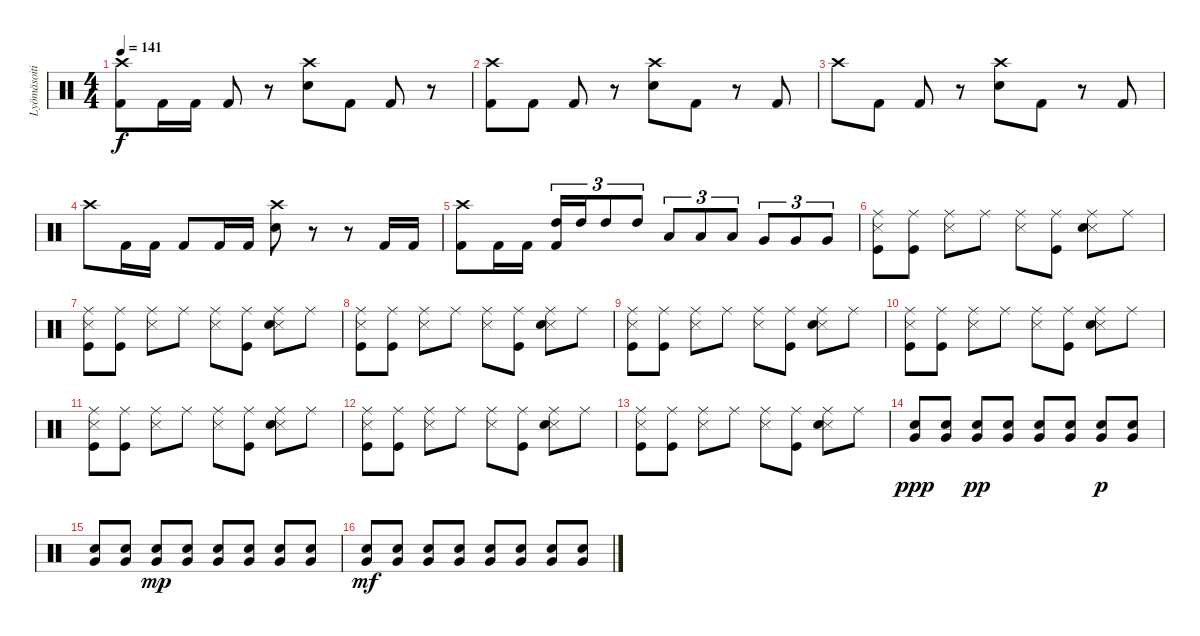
\track ("Lyömäsoitin" "Lyömäsoiti") {instrument percussion}
\staff {score}
\articulation defaults
\ts (4 4)
\tempo 141
\clef neutral
\ks c
("Crash high (hit)" "Kick (hit) 2").8{dy f} "Kick (hit) 2".16 "Kick (hit) 2".16 "Kick (hit) 2".8 r.8 ("Crash high (hit)" "Electric Snare (hit)").8 "Kick (hit) 2".8 "Kick (hit) 2".8 r.8 |
("Crash high (hit)" "Kick (hit) 2").8 "Kick (hit) 2".8 "Kick (hit) 2".8 r.8 ("Crash high (hit)" "Electric Snare (hit)").8 "Kick (hit) 2".8 r.8 "Kick (hit) 2".8 |
"Crash high (hit)".8 "Kick (hit) 2".8 "Kick (hit) 2".8 r.8 ("Crash high (hit)" "Electric Snare (hit)").8 "Kick (hit) 2".8 r.8 "Kick (hit) 2".8 |
"Crash high (hit)".8 "Kick (hit) 2".16 "Kick (hit) 2".16 "Kick (hit) 2".8 "Kick (hit) 2".16 "Kick (hit) 2".16 ("Crash high (hit)" "Electric Snare (hit)").8 r.8 r.8 "Kick (hit) 2".16 "Kick (hit) 2".16 |
("Crash high (hit)" "Kick (hit) 2").8 "Kick (hit) 2".16 "Kick (hit) 2".16 ("High Tom (hit)" "Kick (hit) 2").16{tu (3 2)} "High Tom (hit)".16{tu (3 2)} "High Tom (hit)".8{tu (3 2)} "High Tom (hit)".8{tu (3 2)} "Low Tom (hit)".8{tu (3 2)} "Low Tom (hit)".8{tu (3 2)} "Low Tom (hit)".8{tu (3 2)} "Very Low Tom (hit)".8{tu (3 2)} "Very Low Tom (hit)".8{tu (3 2)} "Very Low Tom (hit)".8{tu (3 2)} |
("Snare (side stick) 3" "Ride (middle)" "Kick (hit)").8 ("Ride (middle)" "Kick (hit)").8 ("Snare (side stick) 3" "Ride (middle)").8 "Ride (middle)".8 ("Snare (side stick) 3" "Ride (middle)").8 ("Ride (middle)" "Kick (hit)").8 ("Snare (side stick) 3" "Ride (middle)" "Snare (hit) 2").8 "Ride (middle)".8 |
("Snare (side stick) 3" "Ride (middle)" "Kick (hit)").8 ("Ride (middle)" "Kick (hit)").8 ("Snare (side stick) 3" "Ride (middle)").8 "Ride (middle)".8 ("Snare (side stick) 3" "Ride (middle)").8 ("Ride (middle)" "Kick (hit)").8 ("Snare (side stick) 3" "Ride (middle)" "Snare (hit) 2").8 "Ride (middle)".8 |
("Snare (side stick) 3" "Ride (middle)" "Kick (hit)").8 ("Ride (middle)" "Kick (hit)").8 ("Snare (side stick) 3" "Ride (middle)").8 "Ride (middle)".8 ("Snare (side stick) 3" "Ride (middle)").8 ("Ride (middle)" "Kick (hit)").8 ("Snare (side stick) 3" "Ride (middle)" "Snare (hit) 2").8 "Ride (middle)".8 |
("Snare (side stick) 3" "Ride (middle)" "Kick (hit)").8 ("Ride (middle)" "Kick (hit)").8 ("Snare (side stick) 3" "Ride (middle)").8 "Ride (middle)".8 ("Snare (side stick) 3" "Ride (middle)").8 ("Ride (middle)" "Kick (hit)").8 ("Snare (side stick) 3" "Ride (middle)" "Snare (hit) 2").8 "Ride (middle)".8 |
("Snare (side stick) 3" "Ride (middle)" "Kick (hit)").8 ("Ride (middle)" "Kick (hit)").8 ("Snare (side stick) 3" "Ride (middle)").8 "Ride (middle)".8 ("Snare (side stick) 3" "Ride (middle)").8 ("Ride (middle)" "Kick (hit)").8 ("Snare (side stick) 3" "Ride (middle)" "Snare (hit) 2").8 "Ride (middle)".8 |
("Snare (side stick) 3" "Ride (middle)" "Kick (hit)").8 ("Ride (middle)" "Kick (hit)").8 ("Snare (side stick) 3" "Ride (middle)").8 "Ride (middle)".8 ("Snare (side stick) 3" "Ride (middle)").8 ("Ride (middle)" "Kick (hit)").8 ("Snare (side stick) 3" "Ride (middle)" "Snare (hit) 2").8 "Ride (middle)".8 |
("Snare (side stick) 3" "Ride (middle)" "Kick (hit)").8 ("Ride (middle)" "Kick (hit)").8 ("Snare (side stick) 3" "Ride (middle)").8 "Ride (middle)".8 ("Snare (side stick) 3" "Ride (middle)").8 ("Ride (middle)" "Kick (hit)").8 ("Snare (side stick) 3" "Ride (middle)" "Snare (hit) 2").8 "Ride (middle)".8 |
("Snare (side stick) 3" "Ride (middle)" "Kick (hit)").8 ("Ride (middle)" "Kick (hit)").8 ("Snare (side stick) 3" "Ride (middle)").8 "Ride (middle)".8 ("Snare (side stick) 3" "Ride (middle)").8 ("Ride (middle)" "Kick (hit)").8 ("Snare (side stick) 3" "Ride (middle)" "Snare (hit) 2").8 "Ride (middle)".8 |
("Snare (hit) 2" "Very Low Tom (hit)").8{dy ppp} ("Snare (hit) 2" "Very Low Tom (hit)").8 ("Snare (hit) 2" "Very Low Tom (hit)").8{dy pp} ("Snare (hit) 2" "Very Low Tom (hit)").8 ("Snare (hit) 2" "Very Low Tom (hit)").8 ("Snare (hit) 2" "Very Low Tom (hit)").8 ("Snare (hit) 2" "Very Low Tom (hit)").8{dy p} ("Snare (hit) 2" "Very Low Tom (hit)").8 |
("Snare (hit) 2" "Very Low Tom (hit)").8 ("Snare (hit) 2" "Very Low Tom (hit)").8 ("Snare (hit) 2" "Very Low Tom (hit)").8{dy mp} ("Snare (hit) 2" "Very Low Tom (hit)").8 ("Snare (hit) 2" "Very Low Tom (hit)").8 ("Snare (hit) 2" "Very Low Tom (hit)").8 ("Snare (hit) 2" "Very Low Tom (hit)").8 ("Snare (hit) 2" "Very Low Tom (hit)").8 |
("Snare (hit) 2" "Very Low Tom (hit)").8{dy mf} ("Snare (hit) 2" "Very Low Tom (hit)").8 ("Snare (hit) 2" "Very Low Tom (hit)").8 ("Snare (hit) 2" "Very Low Tom (hit)").8 ("Snare (hit) 2" "Very Low Tom (hit)").8 ("Snare (hit) 2" "Very Low Tom (hit)").8 ("Snare (hit) 2" "Very Low Tom (hit)").8 ("Snare (hit) 2" "Very Low Tom (hit)").8
